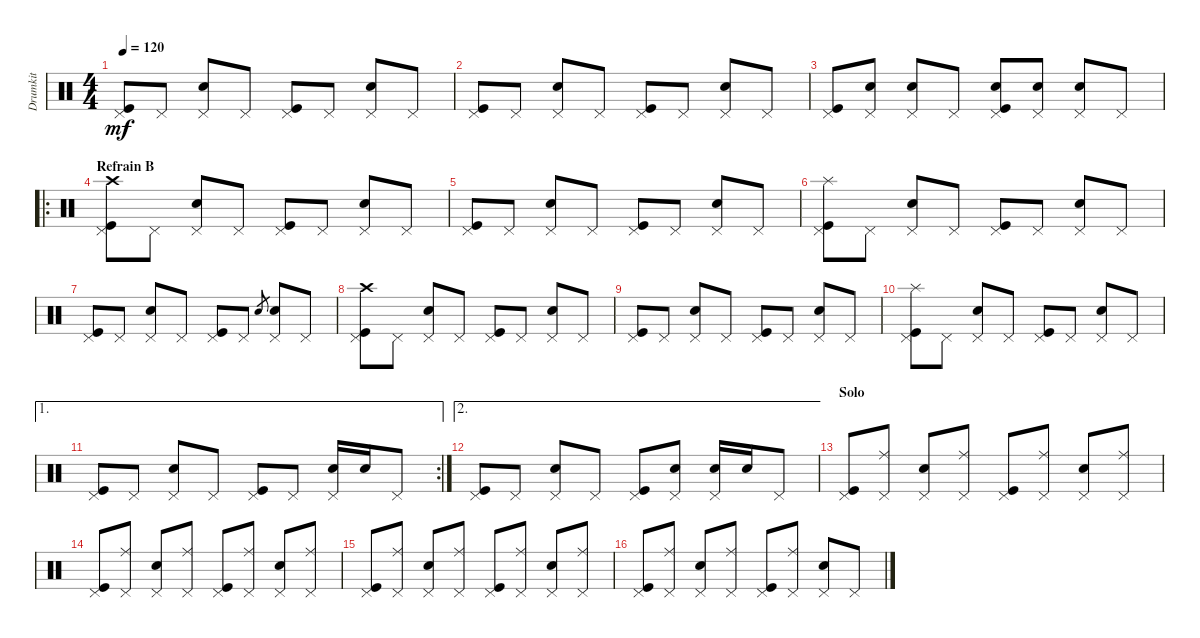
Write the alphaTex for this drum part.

\track ("Drumkit" "Drumkit") {instrument percussion}
\staff {score}
\articulation defaults
\ts (4 4)
\tempo 120
\clef neutral
\ks c
("Kick (hit)" "Pedal Hi-Hat (hit)").8{dy mf} "Pedal Hi-Hat (hit)".8 ("Pedal Hi-Hat (hit)" "Snare (hit) 2").8 "Pedal Hi-Hat (hit)".8 ("Kick (hit)" "Pedal Hi-Hat (hit)").8 "Pedal Hi-Hat (hit)".8 ("Pedal Hi-Hat (hit)" "Snare (hit) 2").8 "Pedal Hi-Hat (hit)".8 |
("Kick (hit)" "Pedal Hi-Hat (hit)").8 "Pedal Hi-Hat (hit)".8 ("Pedal Hi-Hat (hit)" "Snare (hit) 2").8 "Pedal Hi-Hat (hit)".8 ("Kick (hit)" "Pedal Hi-Hat (hit)").8 "Pedal Hi-Hat (hit)".8 ("Pedal Hi-Hat (hit)" "Snare (hit) 2").8 "Pedal Hi-Hat (hit)".8 |
("Kick (hit)" "Pedal Hi-Hat (hit)").8 ("Pedal Hi-Hat (hit)" "Snare (hit) 2").8 ("Pedal Hi-Hat (hit)" "Snare (hit) 2").8 "Pedal Hi-Hat (hit)".8 ("Pedal Hi-Hat (hit)" "Kick (hit)" "Snare (hit) 2").8 ("Pedal Hi-Hat (hit)" "Snare (hit) 2").8 ("Pedal Hi-Hat (hit)" "Snare (hit) 2").8 "Pedal Hi-Hat (hit)".8 |
\ro
\section ("" "Refrain B")
("Kick (hit)" "Crash high (hit)" "Pedal Hi-Hat (hit)").8 "Pedal Hi-Hat (hit)".8 ("Pedal Hi-Hat (hit)" "Snare (hit) 2").8 "Pedal Hi-Hat (hit)".8 ("Kick (hit)" "Pedal Hi-Hat (hit)").8 "Pedal Hi-Hat (hit)".8 ("Pedal Hi-Hat (hit)" "Snare (hit) 2").8 "Pedal Hi-Hat (hit)".8 |
("Kick (hit)" "Pedal Hi-Hat (hit)").8 "Pedal Hi-Hat (hit)".8 ("Pedal Hi-Hat (hit)" "Snare (hit) 2").8 "Pedal Hi-Hat (hit)".8 ("Kick (hit)" "Pedal Hi-Hat (hit)").8 "Pedal Hi-Hat (hit)".8 ("Pedal Hi-Hat (hit)" "Snare (hit) 2").8 "Pedal Hi-Hat (hit)".8 |
("Kick (hit)" "Pedal Hi-Hat (hit)" "Splash (hit)").8 "Pedal Hi-Hat (hit)".8 ("Pedal Hi-Hat (hit)" "Snare (hit) 2").8 "Pedal Hi-Hat (hit)".8 ("Kick (hit)" "Pedal Hi-Hat (hit)").8 "Pedal Hi-Hat (hit)".8 ("Pedal Hi-Hat (hit)" "Snare (hit) 2").8 "Pedal Hi-Hat (hit)".8 |
("Kick (hit)" "Pedal Hi-Hat (hit)").8 "Pedal Hi-Hat (hit)".8 ("Pedal Hi-Hat (hit)" "Snare (hit) 2").8 "Pedal Hi-Hat (hit)".8 ("Kick (hit)" "Pedal Hi-Hat (hit)").8 "Pedal Hi-Hat (hit)".8 "Snare (hit)".8{gr} ("Pedal Hi-Hat (hit)" "Snare (hit) 2").8 "Pedal Hi-Hat (hit)".8 |
("Kick (hit)" "Crash high (hit)" "Pedal Hi-Hat (hit)").8 "Pedal Hi-Hat (hit)".8 ("Pedal Hi-Hat (hit)" "Snare (hit) 2").8 "Pedal Hi-Hat (hit)".8 ("Kick (hit)" "Pedal Hi-Hat (hit)").8 "Pedal Hi-Hat (hit)".8 ("Pedal Hi-Hat (hit)" "Snare (hit) 2").8 "Pedal Hi-Hat (hit)".8 |
("Kick (hit)" "Pedal Hi-Hat (hit)").8 "Pedal Hi-Hat (hit)".8 ("Pedal Hi-Hat (hit)" "Snare (hit) 2").8 "Pedal Hi-Hat (hit)".8 ("Kick (hit)" "Pedal Hi-Hat (hit)").8 "Pedal Hi-Hat (hit)".8 ("Pedal Hi-Hat (hit)" "Snare (hit) 2").8 "Pedal Hi-Hat (hit)".8 |
("Kick (hit)" "Pedal Hi-Hat (hit)" "Splash (hit)").8 "Pedal Hi-Hat (hit)".8 ("Pedal Hi-Hat (hit)" "Snare (hit) 2").8 "Pedal Hi-Hat (hit)".8 ("Kick (hit)" "Pedal Hi-Hat (hit)").8 "Pedal Hi-Hat (hit)".8 ("Pedal Hi-Hat (hit)" "Snare (hit) 2").8 "Pedal Hi-Hat (hit)".8 |
\ae 1
\rc 2
("Kick (hit)" "Pedal Hi-Hat (hit)").8 "Pedal Hi-Hat (hit)".8 ("Pedal Hi-Hat (hit)" "Snare (hit) 2").8 "Pedal Hi-Hat (hit)".8 ("Kick (hit)" "Pedal Hi-Hat (hit)").8 "Pedal Hi-Hat (hit)".8 ("Pedal Hi-Hat (hit)" "Snare (hit) 2").16 "Snare (hit) 2".16 "Pedal Hi-Hat (hit)".8 |
\ae 2
("Kick (hit)" "Pedal Hi-Hat (hit)").8 "Pedal Hi-Hat (hit)".8 ("Pedal Hi-Hat (hit)" "Snare (hit) 2").8 "Pedal Hi-Hat (hit)".8 ("Kick (hit)" "Pedal Hi-Hat (hit)").8 ("Pedal Hi-Hat (hit)" "Snare (hit) 2").8 ("Pedal Hi-Hat (hit)" "Snare (hit) 2").16 "Snare (hit) 2".16 "Pedal Hi-Hat (hit)".8 |
\section ("" "Solo")
("Kick (hit)" "Pedal Hi-Hat (hit)").8 ("Pedal Hi-Hat (hit)" "Ride (middle)").8 ("Pedal Hi-Hat (hit)" "Snare (hit) 2").8 ("Pedal Hi-Hat (hit)" "Ride (middle)").8 ("Kick (hit)" "Pedal Hi-Hat (hit)").8 ("Pedal Hi-Hat (hit)" "Ride (middle)").8 ("Pedal Hi-Hat (hit)" "Snare (hit) 2").8 ("Pedal Hi-Hat (hit)" "Ride (middle)").8 |
("Kick (hit)" "Pedal Hi-Hat (hit)").8 ("Pedal Hi-Hat (hit)" "Ride (middle)").8 ("Pedal Hi-Hat (hit)" "Snare (hit) 2").8 ("Pedal Hi-Hat (hit)" "Ride (middle)").8 ("Kick (hit)" "Pedal Hi-Hat (hit)").8 ("Pedal Hi-Hat (hit)" "Ride (middle)").8 ("Pedal Hi-Hat (hit)" "Snare (hit) 2").8 ("Pedal Hi-Hat (hit)" "Ride (middle)").8 |
("Kick (hit)" "Pedal Hi-Hat (hit)").8 ("Pedal Hi-Hat (hit)" "Ride (middle)").8 ("Pedal Hi-Hat (hit)" "Snare (hit) 2").8 ("Pedal Hi-Hat (hit)" "Ride (middle)").8 ("Kick (hit)" "Pedal Hi-Hat (hit)").8 ("Pedal Hi-Hat (hit)" "Ride (middle)").8 ("Pedal Hi-Hat (hit)" "Snare (hit) 2").8 ("Pedal Hi-Hat (hit)" "Ride (middle)").8 |
("Kick (hit)" "Pedal Hi-Hat (hit)").8 ("Pedal Hi-Hat (hit)" "Ride (middle)").8 ("Pedal Hi-Hat (hit)" "Snare (hit) 2").8 ("Pedal Hi-Hat (hit)" "Ride (middle)").8 ("Kick (hit)" "Pedal Hi-Hat (hit)").8 ("Pedal Hi-Hat (hit)" "Ride (middle)").8 ("Pedal Hi-Hat (hit)" "Snare (hit) 2").8 "Pedal Hi-Hat (hit)".8
